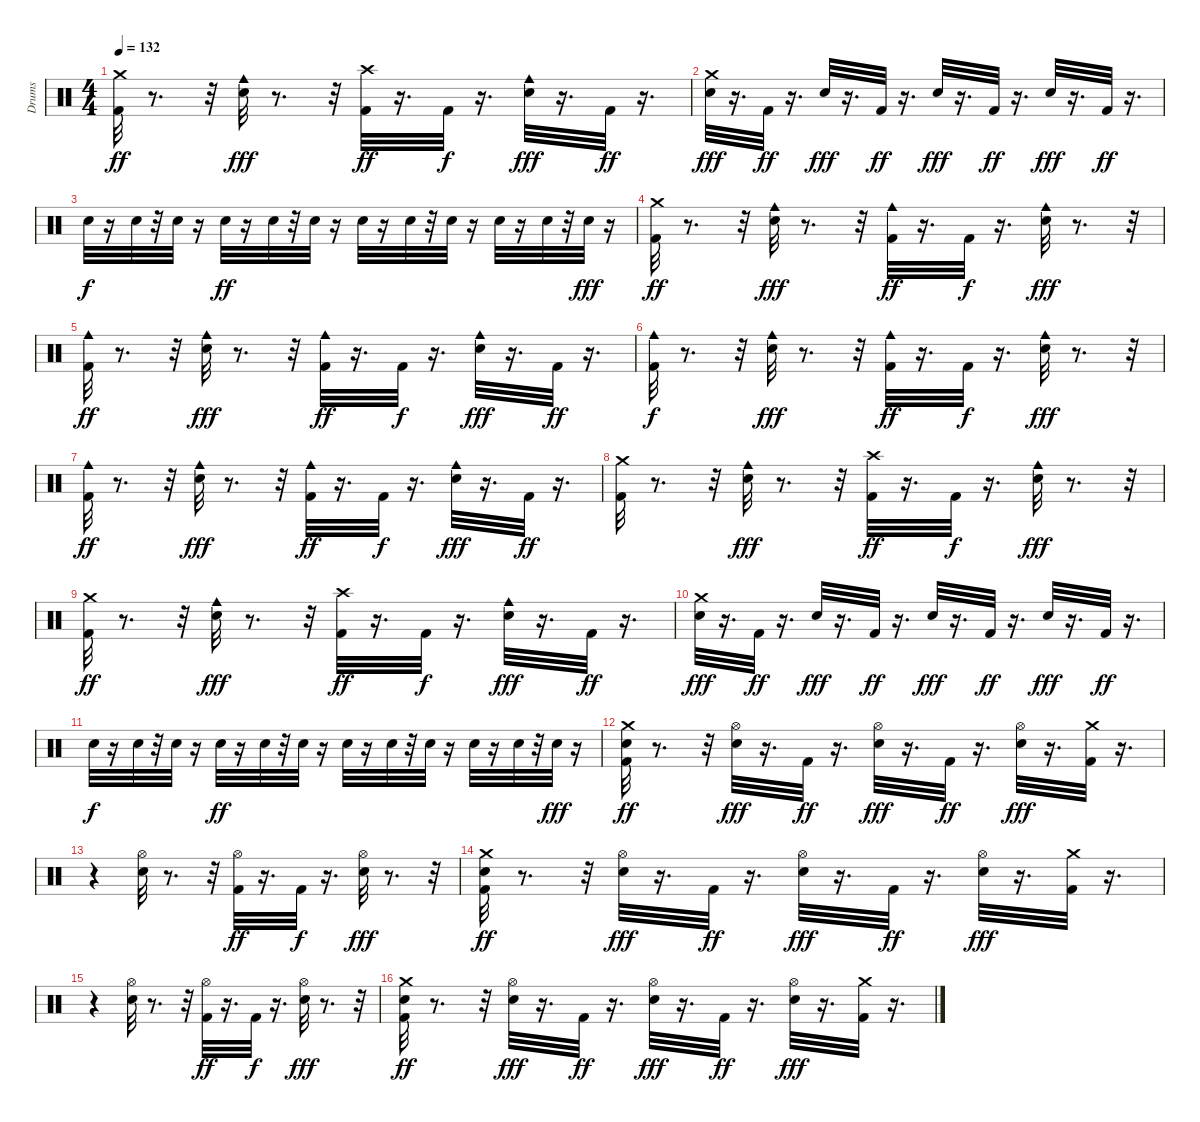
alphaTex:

\track ("Drums" "Drums") {instrument percussion}
\staff {score}
\articulation defaults
\ts (4 4)
\tempo 132
\clef neutral
\ks c
("Crash medium (hit)" "Kick (hit) 2").32{dy ff} r.8{d} r.32 ("Cowbell medium (hit)" "Snare (hit) 2").32{dy fff} r.8{d} r.32 ("Crash high (hit)" "Kick (hit) 2").32{dy ff} r.16{d} "Kick (hit) 2".32{dy f} r.16{d} ("Cowbell medium (hit)" "Snare (hit) 2").32{dy fff} r.16{d} "Kick (hit) 2".32{dy ff} r.16{d} |
("Crash medium (hit)" "Snare (hit) 2").32{dy fff} r.16{d} "Kick (hit) 2".32{dy ff} r.16{d} "Snare (hit) 2".32{dy fff} r.16{d} "Kick (hit) 2".32{dy ff} r.16{d} "Snare (hit) 2".32{dy fff} r.16{d} "Kick (hit) 2".32{dy ff} r.16{d} "Snare (hit) 2".32{dy fff} r.16{d} "Kick (hit) 2".32{dy ff} r.16{d} |
"Snare (hit) 2".32{dy f} r.16 "Snare (hit) 2".32 r.32 "Snare (hit) 2".32 r.16 "Snare (hit) 2".32{dy ff} r.16 "Snare (hit) 2".32 r.32 "Snare (hit) 2".32 r.16 "Snare (hit) 2".32 r.16 "Snare (hit) 2".32 r.32 "Snare (hit) 2".32 r.16 "Snare (hit) 2".32 r.16 "Snare (hit) 2".32 r.32 "Snare (hit) 2".32{dy fff} r.16 |
("Crash medium (hit)" "Kick (hit) 2").32{dy ff} r.8{d} r.32 ("Snare (hit) 2" "Cowbell medium (hit)").32{dy fff} r.8{d} r.32 ("Kick (hit) 2" "Cowbell medium (hit)").32{dy ff} r.16{d} "Kick (hit) 2".32{dy f} r.16{d} ("Snare (hit) 2" "Cowbell medium (hit)").32{dy fff} r.8{d} r.32 |
("Cowbell medium (hit)" "Kick (hit) 2").32{dy ff} r.8{d} r.32 ("Cowbell medium (hit)" "Snare (hit) 2").32{dy fff} r.8{d} r.32 ("Cowbell medium (hit)" "Kick (hit) 2").32{dy ff} r.16{d} "Kick (hit) 2".32{dy f} r.16{d} ("Cowbell medium (hit)" "Snare (hit) 2").32{dy fff} r.16{d} "Kick (hit) 2".32{dy ff} r.16{d} |
("Kick (hit) 2" "Cowbell medium (hit)").32{dy f} r.8{d} r.32 ("Snare (hit) 2" "Cowbell medium (hit)").32{dy fff} r.8{d} r.32 ("Kick (hit) 2" "Cowbell medium (hit)").32{dy ff} r.16{d} "Kick (hit) 2".32{dy f} r.16{d} ("Snare (hit) 2" "Cowbell medium (hit)").32{dy fff} r.8{d} r.32 |
("Cowbell medium (hit)" "Kick (hit) 2").32{dy ff} r.8{d} r.32 ("Cowbell medium (hit)" "Snare (hit) 2").32{dy fff} r.8{d} r.32 ("Cowbell medium (hit)" "Kick (hit) 2").32{dy ff} r.16{d} "Kick (hit) 2".32{dy f} r.16{d} ("Cowbell medium (hit)" "Snare (hit) 2").32{dy fff} r.16{d} "Kick (hit) 2".32{dy ff} r.16{d} |
("Crash medium (hit)" "Kick (hit) 2").32 r.8{d} r.32 ("Snare (hit) 2" "Cowbell medium (hit)").32{dy fff} r.8{d} r.32 ("Crash high (hit)" "Kick (hit) 2").32{dy ff} r.16{d} "Kick (hit) 2".32{dy f} r.16{d} ("Snare (hit) 2" "Cowbell medium (hit)").32{dy fff} r.8{d} r.32 |
("Crash medium (hit)" "Kick (hit) 2").32{dy ff} r.8{d} r.32 ("Cowbell medium (hit)" "Snare (hit) 2").32{dy fff} r.8{d} r.32 ("Crash high (hit)" "Kick (hit) 2").32{dy ff} r.16{d} "Kick (hit) 2".32{dy f} r.16{d} ("Cowbell medium (hit)" "Snare (hit) 2").32{dy fff} r.16{d} "Kick (hit) 2".32{dy ff} r.16{d} |
("Crash medium (hit)" "Snare (hit) 2").32{dy fff} r.16{d} "Kick (hit) 2".32{dy ff} r.16{d} "Snare (hit) 2".32{dy fff} r.16{d} "Kick (hit) 2".32{dy ff} r.16{d} "Snare (hit) 2".32{dy fff} r.16{d} "Kick (hit) 2".32{dy ff} r.16{d} "Snare (hit) 2".32{dy fff} r.16{d} "Kick (hit) 2".32{dy ff} r.16{d} |
"Snare (hit) 2".32{dy f} r.16 "Snare (hit) 2".32 r.32 "Snare (hit) 2".32 r.16 "Snare (hit) 2".32{dy ff} r.16 "Snare (hit) 2".32 r.32 "Snare (hit) 2".32 r.16 "Snare (hit) 2".32 r.16 "Snare (hit) 2".32 r.32 "Snare (hit) 2".32 r.16 "Snare (hit) 2".32 r.16 "Snare (hit) 2".32 r.32 "Snare (hit) 2".32{dy fff} r.16 |
("Snare (hit) 2" "Crash medium (hit)" "Kick (hit) 2").32{dy ff} r.8{d} r.32 ("Hi-Hat (open)" "Snare (hit) 2").32{dy fff} r.16{d} "Kick (hit) 2".32{dy ff} r.16{d} ("Hi-Hat (open)" "Snare (hit) 2").32{dy fff} r.16{d} "Kick (hit) 2".32{dy ff} r.16{d} ("Hi-Hat (open)" "Snare (hit) 2").32{dy fff} r.16{d} ("Kick (hit) 2" "Crash medium (hit)").32 r.16{d} |
r.4 ("Hi-Hat (open)" "Snare (hit) 2").32 r.8{d} r.32 ("Hi-Hat (open)" "Kick (hit) 2").32{dy ff} r.16{d} "Kick (hit) 2".32{dy f} r.16{d} ("Hi-Hat (open)" "Snare (hit) 2").32{dy fff} r.8{d} r.32 |
("Snare (hit) 2" "Crash medium (hit)" "Kick (hit) 2").32{dy ff} r.8{d} r.32 ("Hi-Hat (open)" "Snare (hit) 2").32{dy fff} r.16{d} "Kick (hit) 2".32{dy ff} r.16{d} ("Hi-Hat (open)" "Snare (hit) 2").32{dy fff} r.16{d} "Kick (hit) 2".32{dy ff} r.16{d} ("Hi-Hat (open)" "Snare (hit) 2").32{dy fff} r.16{d} ("Kick (hit) 2" "Crash medium (hit)").32 r.16{d} |
r.4 ("Hi-Hat (open)" "Snare (hit) 2").32 r.8{d} r.32 ("Hi-Hat (open)" "Kick (hit) 2").32{dy ff} r.16{d} "Kick (hit) 2".32{dy f} r.16{d} ("Hi-Hat (open)" "Snare (hit) 2").32{dy fff} r.8{d} r.32 |
("Snare (hit) 2" "Crash medium (hit)" "Kick (hit) 2").32{dy ff} r.8{d} r.32 ("Hi-Hat (open)" "Snare (hit) 2").32{dy fff} r.16{d} "Kick (hit) 2".32{dy ff} r.16{d} ("Hi-Hat (open)" "Snare (hit) 2").32{dy fff} r.16{d} "Kick (hit) 2".32{dy ff} r.16{d} ("Hi-Hat (open)" "Snare (hit) 2").32{dy fff} r.16{d} ("Kick (hit) 2" "Crash medium (hit)").32 r.16{d}
